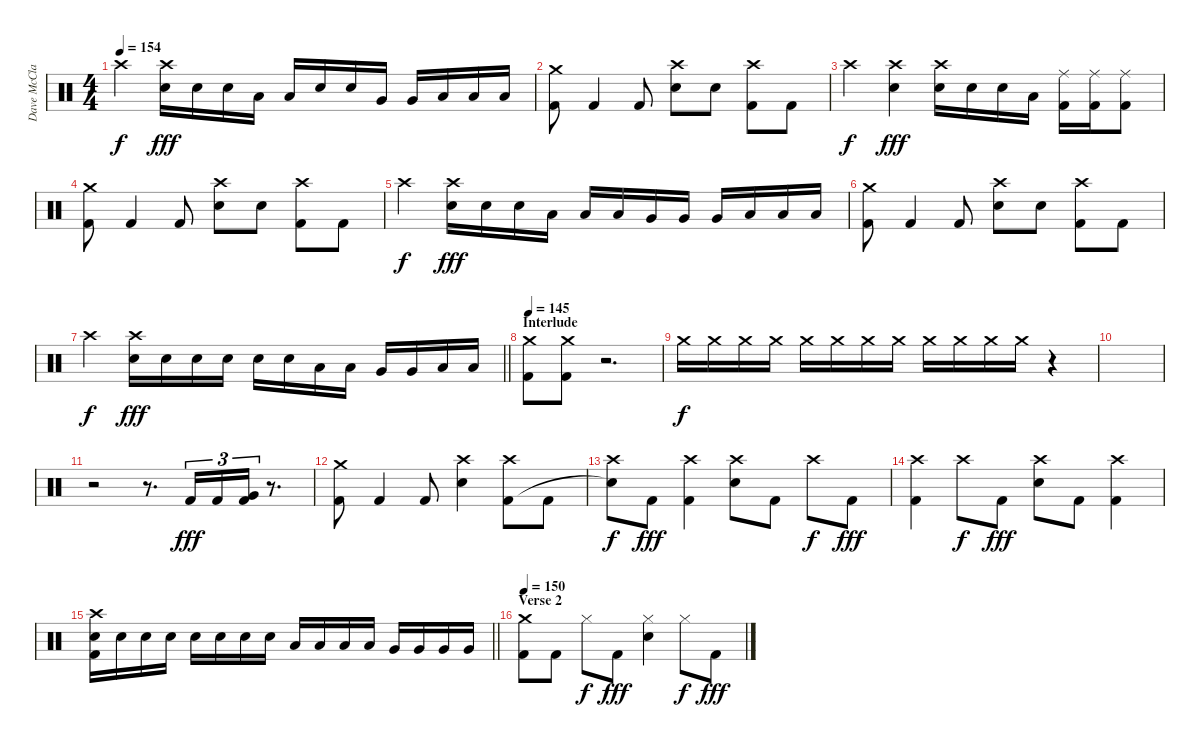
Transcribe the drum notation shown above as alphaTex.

\track ("Dave McClain" "Dave McCla") {instrument percussion}
\staff {score}
\articulation defaults
\ts (4 4)
\tempo 154
\clef neutral
\ks c "Crash high (hit)".4{dy f}
("Crash high (hit)" "Electric Snare (hit)").16{dy fff} "Electric Snare (hit)".16 "Electric Snare (hit)".16 "Low Tom (hit)".16 "Low Tom (hit)".16 "Electric Snare (hit)".16 "Electric Snare (hit)".16 "Very Low Tom (hit)".16 "Very Low Tom (hit)".16 "Low Floor Tom (hit)".16 "Low Floor Tom (hit)".16 "Low Floor Tom (hit)".16 |
("Crash medium (hit)" "Kick (hit) 2").8 "Kick (hit) 2".4 "Kick (hit) 2".8 ("Crash high (hit)" "Electric Snare (hit)").8 "Electric Snare (hit)".8 ("Crash high (hit)" "Kick (hit) 2").8 "Kick (hit) 2".8 |
"Crash high (hit)".4{dy f} ("Crash high (hit)" "Electric Snare (hit)").4{dy fff} ("Crash high (hit)" "Electric Snare (hit)").16 "Electric Snare (hit)".16 "Electric Snare (hit)".16 "Low Tom (hit)".16 ("Ride (middle)" "Kick (hit) 2").16 ("Ride (middle)" "Kick (hit) 2").16 ("Ride (middle)" "Kick (hit) 2").8 |
("Crash medium (hit)" "Kick (hit) 2").8 "Kick (hit) 2".4 "Kick (hit) 2".8 ("Crash high (hit)" "Electric Snare (hit)").8 "Electric Snare (hit)".8 ("Crash high (hit)" "Kick (hit) 2").8 "Kick (hit) 2".8 |
"Crash high (hit)".4{dy f} ("Crash high (hit)" "Electric Snare (hit)").16{dy fff} "Electric Snare (hit)".16 "Electric Snare (hit)".16 "Low Tom (hit)".16 "Low Tom (hit)".16 "Low Tom (hit)".16 "Very Low Tom (hit)".16 "Very Low Tom (hit)".16 "Very Low Tom (hit)".16 "Low Floor Tom (hit)".16 "Low Floor Tom (hit)".16 "Low Floor Tom (hit)".16 |
("Crash medium (hit)" "Kick (hit) 2").8 "Kick (hit) 2".4 "Kick (hit) 2".8 ("Crash high (hit)" "Electric Snare (hit)").8 "Electric Snare (hit)".8 ("Crash high (hit)" "Kick (hit) 2").8 "Kick (hit) 2".8 |
\barLineRight lightlight "Crash high (hit)".4{dy f}
("Crash high (hit)" "Electric Snare (hit)").16{dy fff} "Electric Snare (hit)".16 "Electric Snare (hit)".16 "Electric Snare (hit)".16 "Electric Snare (hit)".16 "Electric Snare (hit)".16 "Low Tom (hit)".16 "Low Tom (hit)".16 "Very Low Tom (hit)".16 "Very Low Tom (hit)".16 "Low Floor Tom (hit)".16 "Low Floor Tom (hit)".16 |
\section ("" "Interlude")
\tempo 145
("Crash medium (hit)" "Kick (hit) 2").8 ("Crash medium (hit)" "Kick (hit) 2").8 r.2{d} |
"Crash medium (hit)".16{dy f volume 2} "Crash medium (hit)".16{volume 6} "Crash medium (hit)".16{volume 7} "Crash medium (hit)".16{volume 8} "Crash medium (hit)".16{volume 9} "Crash medium (hit)".16{volume 10} "Crash medium (hit)".16{volume 11} "Crash medium (hit)".16{volume 12} "Crash medium (hit)".16{volume 13} "Crash medium (hit)".16{volume 14} "Crash medium (hit)".16{volume 15} "Crash medium (hit)".16{volume 16} r.4 |
|
r.2 r.8{d} "Kick (hit) 2".16{tu (3 2) dy fff} "Kick (hit) 2".16{tu (3 2)} ("Very Low Tom (hit)" "Kick (hit) 2").16{tu (3 2)} r.8{d} |
("Crash medium (hit)" "Kick (hit) 2").8 "Kick (hit) 2".4 "Kick (hit) 2".8 ("Crash high (hit)" "Electric Snare (hit)").4 ("Crash high (hit)" "Kick (hit) 2").8 "Kick (hit) 2".8 |
("Crash high (hit)" "Snare (hit)"{t}).8{dy f} "Kick (hit) 2".8{dy fff} ("Crash high (hit)" "Kick (hit) 2").4 ("Crash high (hit)" "Electric Snare (hit)").8 "Kick (hit) 2".8 "Crash high (hit)".8{dy f} "Kick (hit) 2".8{dy fff} |
("Crash high (hit)" "Kick (hit) 2").4 "Crash high (hit)".8{dy f} "Kick (hit) 2".8{dy fff} ("Crash high (hit)" "Electric Snare (hit)").8 "Kick (hit) 2".8 ("Crash high (hit)" "Kick (hit) 2").4 |
\barLineRight lightlight
("Crash high (hit)" "Electric Snare (hit)" "Kick (hit) 2").16 "Electric Snare (hit)".16 "Electric Snare (hit)".16 "Electric Snare (hit)".16 "Electric Snare (hit)".16 "Electric Snare (hit)".16 "Electric Snare (hit)".16 "Electric Snare (hit)".16 "Low Tom (hit)".16 "Low Tom (hit)".16 "Low Tom (hit)".16 "Low Tom (hit)".16 "Very Low Tom (hit)".16 "Very Low Tom (hit)".16 "Very Low Tom (hit)".16 "Very Low Tom (hit)".16 |
\section ("" "Verse 2")
\tempo 150
("Crash medium (hit)" "Kick (hit) 2").8 "Kick (hit) 2".8 "Hi-Hat (closed)".8{dy f} "Kick (hit) 2".8{dy fff} ("Hi-Hat (closed)" "Electric Snare (hit)").4 "Hi-Hat (closed)".8{dy f} "Kick (hit) 2".8{dy fff}
